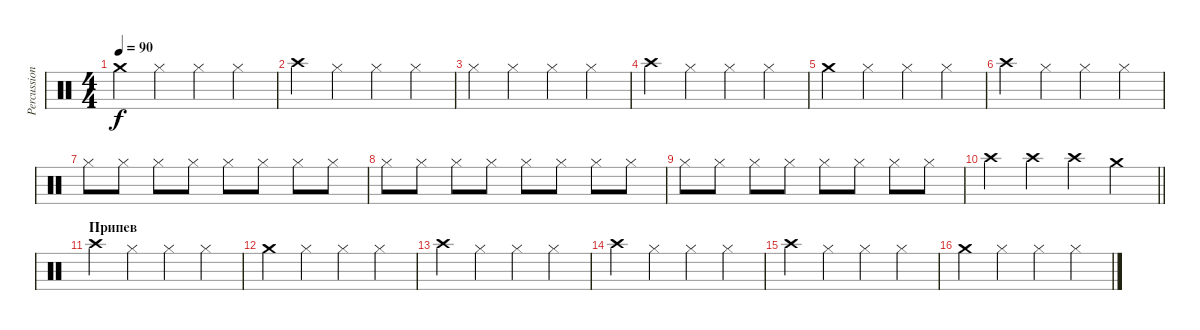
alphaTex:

\track ("Percussion" "Percussion") {instrument percussion}
\staff {score}
\articulation defaults
\ts (4 4)
\tempo 90
\clef neutral
\ks c "Crash medium (hit)".4{dy f} "Hi-Hat (closed)".4 "Hi-Hat (closed)".4 "Hi-Hat (closed)".4
|
"Crash high (hit)".4 "Hi-Hat (closed)".4 "Hi-Hat (closed)".4 "Hi-Hat (closed)".4 |
"Hi-Hat (closed)".4 "Hi-Hat (closed)".4 "Hi-Hat (closed)".4 "Hi-Hat (closed)".4 |
"Crash high (hit)".4 "Hi-Hat (closed)".4 "Hi-Hat (closed)".4 "Hi-Hat (closed)".4 |
"Crash medium (hit)".4 "Hi-Hat (closed)".4 "Hi-Hat (closed)".4 "Hi-Hat (closed)".4 |
"Crash high (hit)".4 "Hi-Hat (closed)".4 "Hi-Hat (closed)".4 "Hi-Hat (closed)".4 |
"Hi-Hat (closed)".8 "Hi-Hat (closed)".8 "Hi-Hat (closed)".8 "Hi-Hat (closed)".8 "Hi-Hat (closed)".8 "Hi-Hat (closed)".8 "Hi-Hat (closed)".8 "Hi-Hat (closed)".8 |
"Hi-Hat (closed)".8 "Hi-Hat (closed)".8 "Hi-Hat (closed)".8 "Hi-Hat (closed)".8 "Hi-Hat (closed)".8 "Hi-Hat (closed)".8 "Hi-Hat (closed)".8 "Hi-Hat (closed)".8 |
"Hi-Hat (closed)".8 "Hi-Hat (closed)".8 "Hi-Hat (closed)".8 "Hi-Hat (closed)".8 "Hi-Hat (closed)".8 "Hi-Hat (closed)".8 "Hi-Hat (closed)".8 "Hi-Hat (closed)".8 |
\barLineRight lightlight "Crash high (hit)".4 "Crash high (hit)".4 "Crash high (hit)".4 "Crash medium (hit)".4
|
\section ("" "Припев")
"Crash high (hit)".4 "Hi-Hat (closed)".4 "Hi-Hat (closed)".4 "Hi-Hat (closed)".4 |
"Crash medium (hit)".4 "Hi-Hat (closed)".4 "Hi-Hat (closed)".4 "Hi-Hat (closed)".4 |
"Crash high (hit)".4 "Hi-Hat (closed)".4 "Hi-Hat (closed)".4 "Hi-Hat (closed)".4 |
"Crash high (hit)".4 "Hi-Hat (closed)".4 "Hi-Hat (closed)".4 "Hi-Hat (closed)".4 |
"Crash high (hit)".4 "Hi-Hat (closed)".4 "Hi-Hat (closed)".4 "Hi-Hat (closed)".4 |
"Crash medium (hit)".4 "Hi-Hat (closed)".4 "Hi-Hat (closed)".4 "Hi-Hat (closed)".4
